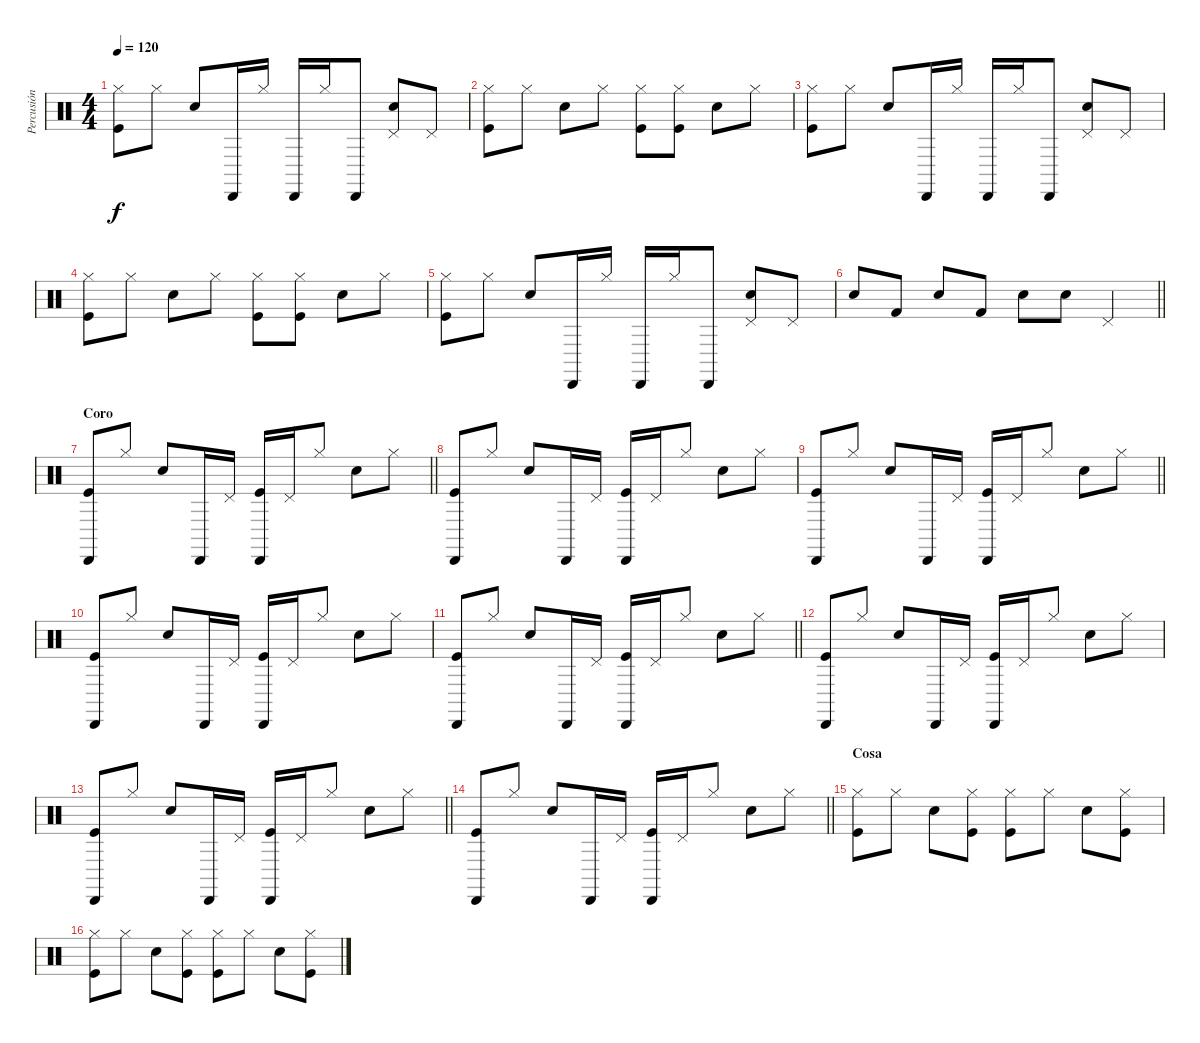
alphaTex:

\track ("Percusión" "Percusión") {instrument percussion}
\staff {score}
\articulation defaults
\ts (4 4)
\tempo 120
\clef neutral
\ks c
("Kick (hit)" "Hi-Hat (closed)").8{dy f} "Hi-Hat (closed)".8 "Electric Snare (hit)".8 "Cabasa (hit)".16 "Hi-Hat (closed)".16 "Cabasa (hit)".16 "Hi-Hat (closed)".16 "Cabasa (hit)".8 ("Electric Snare (hit)" "Pedal Hi-Hat (hit)").8 "Pedal Hi-Hat (hit)".8 |
("Kick (hit)" "Hi-Hat (closed)").8 "Hi-Hat (closed)".8 "Electric Snare (hit)".8 "Hi-Hat (closed)".8 ("Kick (hit)" "Hi-Hat (closed)").8 ("Kick (hit)" "Hi-Hat (closed)").8 "Electric Snare (hit)".8 "Hi-Hat (closed)".8 |
("Kick (hit)" "Hi-Hat (closed)").8 "Hi-Hat (closed)".8 "Electric Snare (hit)".8 "Cabasa (hit)".16 "Hi-Hat (closed)".16 "Cabasa (hit)".16 "Hi-Hat (closed)".16 "Cabasa (hit)".8 ("Electric Snare (hit)" "Pedal Hi-Hat (hit)").8 "Pedal Hi-Hat (hit)".8 |
("Kick (hit)" "Hi-Hat (closed)").8 "Hi-Hat (closed)".8 "Electric Snare (hit)".8 "Hi-Hat (closed)".8 ("Kick (hit)" "Hi-Hat (closed)").8 ("Kick (hit)" "Hi-Hat (closed)").8 "Electric Snare (hit)".8 "Hi-Hat (closed)".8 |
("Kick (hit)" "Hi-Hat (closed)").8 "Hi-Hat (closed)".8 "Electric Snare (hit)".8 "Cabasa (hit)".16 "Hi-Hat (closed)".16 "Cabasa (hit)".16 "Hi-Hat (closed)".16 "Cabasa (hit)".8 ("Electric Snare (hit)" "Pedal Hi-Hat (hit)").8 "Pedal Hi-Hat (hit)".8 |
\barLineRight lightlight "Electric Snare (hit)".8 "Kick (hit) 2".8 "Electric Snare (hit)".8 "Kick (hit) 2".8 "Electric Snare (hit)".8 "Electric Snare (hit)".8 "Pedal Hi-Hat (hit)".4
|
\section ("" "Coro")
\barLineRight lightlight
("Kick (hit)" "Cabasa (hit)").8 "Hi-Hat (closed)".8 "Electric Snare (hit)".8 "Cabasa (hit)".16 "Pedal Hi-Hat (hit)".16 ("Kick (hit)" "Cabasa (hit)").16 "Pedal Hi-Hat (hit)".16 "Hi-Hat (closed)".8 "Electric Snare (hit)".8 "Hi-Hat (closed)".8 |
("Kick (hit)" "Cabasa (hit)").8 "Hi-Hat (closed)".8 "Electric Snare (hit)".8 "Cabasa (hit)".16 "Pedal Hi-Hat (hit)".16 ("Kick (hit)" "Cabasa (hit)").16 "Pedal Hi-Hat (hit)".16 "Hi-Hat (closed)".8 "Electric Snare (hit)".8 "Hi-Hat (closed)".8 |
\barLineRight lightlight
("Kick (hit)" "Cabasa (hit)").8 "Hi-Hat (closed)".8 "Electric Snare (hit)".8 "Cabasa (hit)".16 "Pedal Hi-Hat (hit)".16 ("Kick (hit)" "Cabasa (hit)").16 "Pedal Hi-Hat (hit)".16 "Hi-Hat (closed)".8 "Electric Snare (hit)".8 "Hi-Hat (closed)".8 |
("Kick (hit)" "Cabasa (hit)").8 "Hi-Hat (closed)".8 "Electric Snare (hit)".8 "Cabasa (hit)".16 "Pedal Hi-Hat (hit)".16 ("Kick (hit)" "Cabasa (hit)").16 "Pedal Hi-Hat (hit)".16 "Hi-Hat (closed)".8 "Electric Snare (hit)".8 "Hi-Hat (closed)".8 |
\barLineRight lightlight
("Kick (hit)" "Cabasa (hit)").8 "Hi-Hat (closed)".8 "Electric Snare (hit)".8 "Cabasa (hit)".16 "Pedal Hi-Hat (hit)".16 ("Kick (hit)" "Cabasa (hit)").16 "Pedal Hi-Hat (hit)".16 "Hi-Hat (closed)".8 "Electric Snare (hit)".8 "Hi-Hat (closed)".8 |
("Kick (hit)" "Cabasa (hit)").8 "Hi-Hat (closed)".8 "Electric Snare (hit)".8 "Cabasa (hit)".16 "Pedal Hi-Hat (hit)".16 ("Kick (hit)" "Cabasa (hit)").16 "Pedal Hi-Hat (hit)".16 "Hi-Hat (closed)".8 "Electric Snare (hit)".8 "Hi-Hat (closed)".8 |
\barLineRight lightlight
("Kick (hit)" "Cabasa (hit)").8 "Hi-Hat (closed)".8 "Electric Snare (hit)".8 "Cabasa (hit)".16 "Pedal Hi-Hat (hit)".16 ("Kick (hit)" "Cabasa (hit)").16 "Pedal Hi-Hat (hit)".16 "Hi-Hat (closed)".8 "Electric Snare (hit)".8 "Hi-Hat (closed)".8 |
\barLineRight lightlight
("Kick (hit)" "Cabasa (hit)").8 "Hi-Hat (closed)".8 "Electric Snare (hit)".8 "Cabasa (hit)".16 "Pedal Hi-Hat (hit)".16 ("Kick (hit)" "Cabasa (hit)").16 "Pedal Hi-Hat (hit)".16 "Hi-Hat (closed)".8 "Electric Snare (hit)".8 "Hi-Hat (closed)".8 |
\section ("" "Cosa")
("Kick (hit)" "Hi-Hat (closed)").8 "Hi-Hat (closed)".8 "Electric Snare (hit)".8 ("Kick (hit)" "Hi-Hat (closed)").8 ("Kick (hit)" "Hi-Hat (closed)").8 "Hi-Hat (closed)".8 "Electric Snare (hit)".8 ("Kick (hit)" "Hi-Hat (closed)").8 |
("Kick (hit)" "Hi-Hat (closed)").8 "Hi-Hat (closed)".8 "Electric Snare (hit)".8 ("Kick (hit)" "Hi-Hat (closed)").8 ("Kick (hit)" "Hi-Hat (closed)").8 "Hi-Hat (closed)".8 "Electric Snare (hit)".8 ("Kick (hit)" "Hi-Hat (closed)").8
